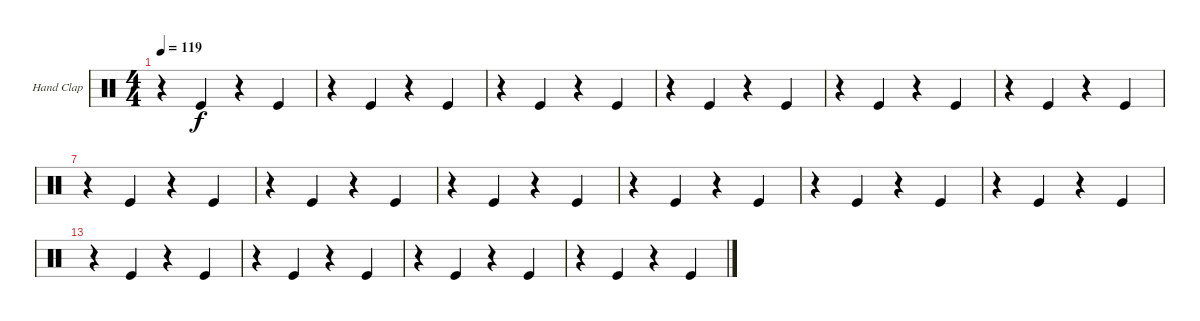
\defaultSystemsLayout 4
\bracketExtendMode groupsimilarinstruments
\useSystemSignSeparator
\multiBarRest
\multiTrackTrackNamePolicy allsystems
\firstSystemTrackNameMode fullname
\firstSystemTrackNameOrientation horizontal
\otherSystemsTrackNameOrientation horizontal
\defaultBarNumberDisplay FirstOfSystem
\track ("Hand Clap" "H-Clap") {multiBarRest instrument percussion}
\staff {score}
\articulation defaults
\ts (4 4)
\tempo 119
\clef neutral
\ks aminor
r.4{dy f} "Kick (hit)".4 r.4 "Kick (hit)".4 |
r.4 "Kick (hit)".4 r.4 "Kick (hit)".4 |
r.4 "Kick (hit)".4 r.4 "Kick (hit)".4 |
r.4 "Kick (hit)".4 r.4 "Kick (hit)".4 |
r.4 "Kick (hit)".4 r.4 "Kick (hit)".4 |
r.4 "Kick (hit)".4 r.4 "Kick (hit)".4 |
r.4 "Kick (hit)".4 r.4 "Kick (hit)".4 |
r.4 "Kick (hit)".4 r.4 "Kick (hit)".4 |
r.4 "Kick (hit)".4 r.4 "Kick (hit)".4 |
r.4 "Kick (hit)".4 r.4 "Kick (hit)".4 |
r.4 "Kick (hit)".4 r.4 "Kick (hit)".4 |
r.4 "Kick (hit)".4 r.4 "Kick (hit)".4 |
r.4 "Kick (hit)".4 r.4 "Kick (hit)".4 |
r.4 "Kick (hit)".4 r.4 "Kick (hit)".4 |
r.4 "Kick (hit)".4 r.4 "Kick (hit)".4 |
r.4 "Kick (hit)".4 r.4 "Kick (hit)".4
